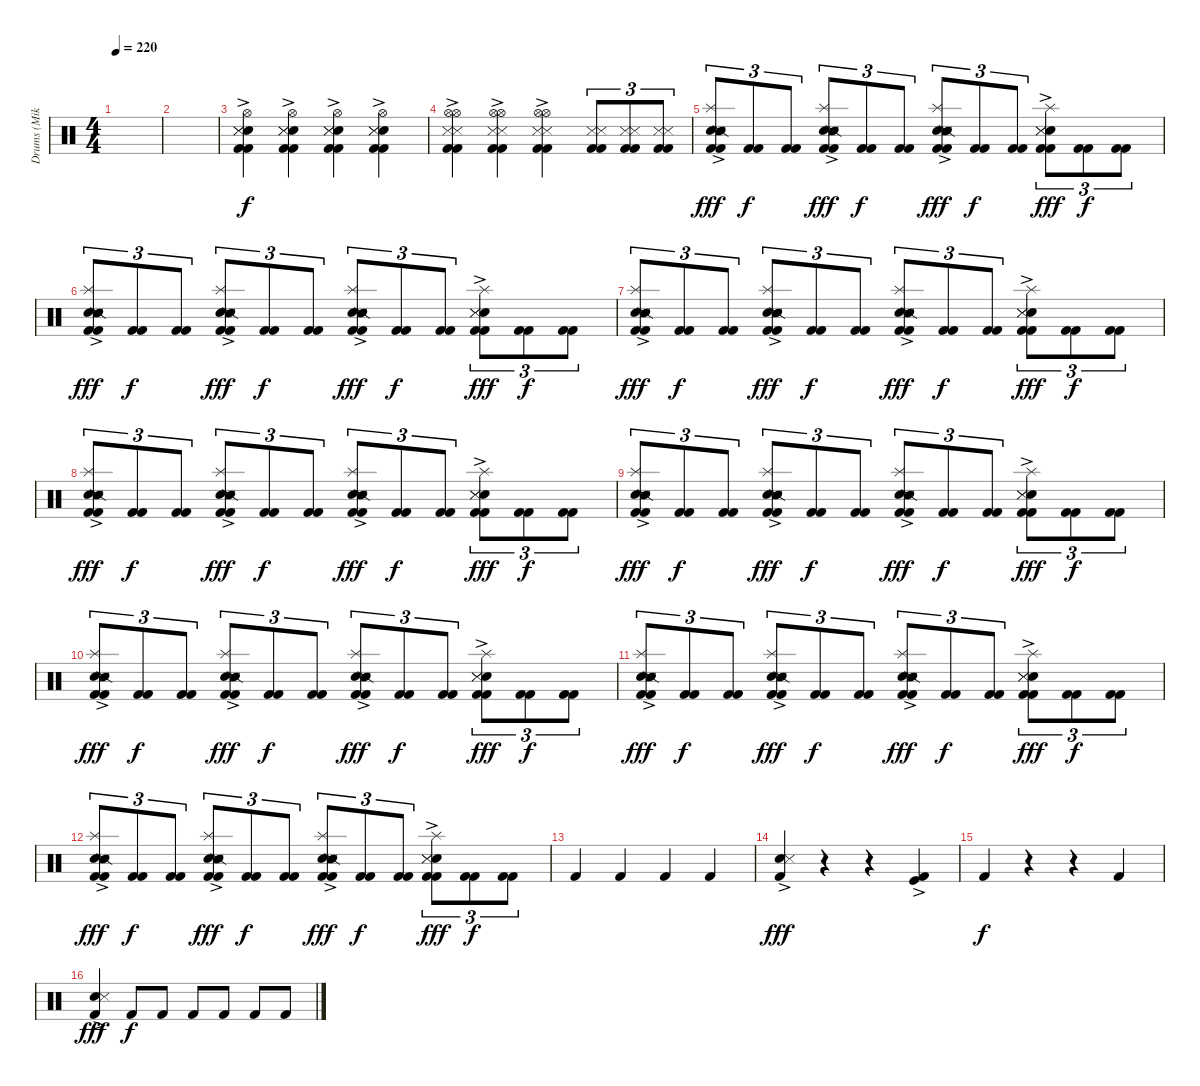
\track ("Drums (Mike Justian)" "Drums (Mik") {instrument percussion}
\staff {score}
\articulation defaults
\ts (4 4)
\tempo 220
\clef neutral
\ks c
|
|
("Hi-Hat (open)"{ac} "Electric Snare (hit)" "Snare (side stick) 3" "Kick (hit) 2" "Kick (hit) 2" "Snare (side stick) 3").4 ("Hi-Hat (open)"{ac} "Electric Snare (hit)" "Snare (side stick) 3" "Kick (hit) 2" "Kick (hit) 2" "Snare (side stick) 3").4 ("Hi-Hat (open)"{ac} "Electric Snare (hit)" "Snare (side stick) 3" "Kick (hit) 2" "Kick (hit) 2" "Snare (side stick) 3").4 ("Hi-Hat (open)"{ac} "Electric Snare (hit)" "Snare (side stick) 3" "Kick (hit) 2" "Kick (hit) 2" "Snare (side stick) 3").4 |
("Hi-Hat (open)"{ac} "Hi-Hat (open)" "Snare (side stick) 3" "Kick (hit) 2" "Kick (hit) 2" "Snare (side stick) 3").4 ("Hi-Hat (open)"{ac} "Hi-Hat (open)" "Snare (side stick) 3" "Kick (hit) 2" "Kick (hit) 2" "Snare (side stick) 3").4 ("Hi-Hat (open)"{ac} "Hi-Hat (open)" "Snare (side stick) 3" "Kick (hit) 2" "Kick (hit) 2" "Snare (side stick) 3").4 ("Snare (side stick) 3" "Kick (hit) 2" "Kick (hit) 2" "Snare (side stick) 3").8{tu (3 2) dy f} ("Snare (side stick) 3" "Kick (hit) 2" "Kick (hit) 2" "Snare (side stick) 3").8{tu (3 2)} ("Snare (side stick) 3" "Kick (hit) 2" "Kick (hit) 2" "Snare (side stick) 3").8{tu (3 2)} |
("Splash (hit)"{ac} "Electric Snare (hit)" "Snare (side stick) 2" "Snare (side stick) 3" "Kick (hit) 2" "Kick (hit) 2").8{tu (3 2) dy fff} ("Kick (hit) 2" "Kick (hit) 2").8{tu (3 2) dy f} ("Kick (hit) 2" "Kick (hit) 2").8{tu (3 2)} ("Splash (hit)"{ac} "Electric Snare (hit)" "Snare (side stick) 2" "Snare (side stick) 3" "Kick (hit) 2" "Kick (hit) 2").8{tu (3 2) dy fff} ("Kick (hit) 2" "Kick (hit) 2").8{tu (3 2) dy f} ("Kick (hit) 2" "Kick (hit) 2").8{tu (3 2)} ("Splash (hit)"{ac} "Electric Snare (hit)" "Snare (side stick) 2" "Snare (side stick) 3" "Kick (hit) 2" "Kick (hit) 2").8{tu (3 2) dy fff} ("Kick (hit) 2" "Kick (hit) 2").8{tu (3 2) dy f} ("Kick (hit) 2" "Kick (hit) 2").8{tu (3 2)} ("Splash (hit)"{ac} "Electric Snare (hit)" "Snare (side stick) 3" "Snare (side stick) 3" "Kick (hit) 2" "Kick (hit) 2").8{tu (3 2) dy fff} ("Kick (hit) 2" "Kick (hit) 2").8{tu (3 2) dy f} ("Kick (hit) 2" "Kick (hit) 2").8{tu (3 2)} |
("Splash (hit)"{ac} "Electric Snare (hit)" "Snare (side stick) 2" "Snare (side stick) 3" "Kick (hit) 2" "Kick (hit) 2").8{tu (3 2) dy fff} ("Kick (hit) 2" "Kick (hit) 2").8{tu (3 2) dy f} ("Kick (hit) 2" "Kick (hit) 2").8{tu (3 2)} ("Splash (hit)"{ac} "Electric Snare (hit)" "Snare (side stick) 2" "Snare (side stick) 3" "Kick (hit) 2" "Kick (hit) 2").8{tu (3 2) dy fff} ("Kick (hit) 2" "Kick (hit) 2").8{tu (3 2) dy f} ("Kick (hit) 2" "Kick (hit) 2").8{tu (3 2)} ("Splash (hit)"{ac} "Electric Snare (hit)" "Snare (side stick) 2" "Snare (side stick) 3" "Kick (hit) 2" "Kick (hit) 2").8{tu (3 2) dy fff} ("Kick (hit) 2" "Kick (hit) 2").8{tu (3 2) dy f} ("Kick (hit) 2" "Kick (hit) 2").8{tu (3 2)} ("Splash (hit)"{ac} "Electric Snare (hit)" "Snare (side stick) 3" "Snare (side stick) 3" "Kick (hit) 2" "Kick (hit) 2").8{tu (3 2) dy fff} ("Kick (hit) 2" "Kick (hit) 2").8{tu (3 2) dy f} ("Kick (hit) 2" "Kick (hit) 2").8{tu (3 2)} |
("Splash (hit)"{ac} "Electric Snare (hit)" "Snare (side stick) 2" "Snare (side stick) 3" "Kick (hit) 2" "Kick (hit) 2").8{tu (3 2) dy fff} ("Kick (hit) 2" "Kick (hit) 2").8{tu (3 2) dy f} ("Kick (hit) 2" "Kick (hit) 2").8{tu (3 2)} ("Splash (hit)"{ac} "Electric Snare (hit)" "Snare (side stick) 2" "Snare (side stick) 3" "Kick (hit) 2" "Kick (hit) 2").8{tu (3 2) dy fff} ("Kick (hit) 2" "Kick (hit) 2").8{tu (3 2) dy f} ("Kick (hit) 2" "Kick (hit) 2").8{tu (3 2)} ("Splash (hit)"{ac} "Electric Snare (hit)" "Snare (side stick) 2" "Snare (side stick) 3" "Kick (hit) 2" "Kick (hit) 2").8{tu (3 2) dy fff} ("Kick (hit) 2" "Kick (hit) 2").8{tu (3 2) dy f} ("Kick (hit) 2" "Kick (hit) 2").8{tu (3 2)} ("Splash (hit)"{ac} "Electric Snare (hit)" "Snare (side stick) 3" "Snare (side stick) 3" "Kick (hit) 2" "Kick (hit) 2").8{tu (3 2) dy fff} ("Kick (hit) 2" "Kick (hit) 2").8{tu (3 2) dy f} ("Kick (hit) 2" "Kick (hit) 2").8{tu (3 2)} |
("Splash (hit)"{ac} "Electric Snare (hit)" "Snare (side stick) 2" "Snare (side stick) 3" "Kick (hit) 2" "Kick (hit) 2").8{tu (3 2) dy fff} ("Kick (hit) 2" "Kick (hit) 2").8{tu (3 2) dy f} ("Kick (hit) 2" "Kick (hit) 2").8{tu (3 2)} ("Splash (hit)"{ac} "Electric Snare (hit)" "Snare (side stick) 2" "Snare (side stick) 3" "Kick (hit) 2" "Kick (hit) 2").8{tu (3 2) dy fff} ("Kick (hit) 2" "Kick (hit) 2").8{tu (3 2) dy f} ("Kick (hit) 2" "Kick (hit) 2").8{tu (3 2)} ("Splash (hit)"{ac} "Electric Snare (hit)" "Snare (side stick) 2" "Snare (side stick) 3" "Kick (hit) 2" "Kick (hit) 2").8{tu (3 2) dy fff} ("Kick (hit) 2" "Kick (hit) 2").8{tu (3 2) dy f} ("Kick (hit) 2" "Kick (hit) 2").8{tu (3 2)} ("Splash (hit)"{ac} "Electric Snare (hit)" "Snare (side stick) 3" "Snare (side stick) 3" "Kick (hit) 2" "Kick (hit) 2").8{tu (3 2) dy fff} ("Kick (hit) 2" "Kick (hit) 2").8{tu (3 2) dy f} ("Kick (hit) 2" "Kick (hit) 2").8{tu (3 2)} |
("Splash (hit)"{ac} "Electric Snare (hit)" "Snare (side stick) 2" "Snare (side stick) 3" "Kick (hit) 2" "Kick (hit) 2").8{tu (3 2) dy fff} ("Kick (hit) 2" "Kick (hit) 2").8{tu (3 2) dy f} ("Kick (hit) 2" "Kick (hit) 2").8{tu (3 2)} ("Splash (hit)"{ac} "Electric Snare (hit)" "Snare (side stick) 2" "Snare (side stick) 3" "Kick (hit) 2" "Kick (hit) 2").8{tu (3 2) dy fff} ("Kick (hit) 2" "Kick (hit) 2").8{tu (3 2) dy f} ("Kick (hit) 2" "Kick (hit) 2").8{tu (3 2)} ("Splash (hit)"{ac} "Electric Snare (hit)" "Snare (side stick) 2" "Snare (side stick) 3" "Kick (hit) 2" "Kick (hit) 2").8{tu (3 2) dy fff} ("Kick (hit) 2" "Kick (hit) 2").8{tu (3 2) dy f} ("Kick (hit) 2" "Kick (hit) 2").8{tu (3 2)} ("Splash (hit)"{ac} "Electric Snare (hit)" "Snare (side stick) 3" "Snare (side stick) 3" "Kick (hit) 2" "Kick (hit) 2").8{tu (3 2) dy fff} ("Kick (hit) 2" "Kick (hit) 2").8{tu (3 2) dy f} ("Kick (hit) 2" "Kick (hit) 2").8{tu (3 2)} |
("Splash (hit)"{ac} "Electric Snare (hit)" "Snare (side stick) 2" "Snare (side stick) 3" "Kick (hit) 2" "Kick (hit) 2").8{tu (3 2) dy fff} ("Kick (hit) 2" "Kick (hit) 2").8{tu (3 2) dy f} ("Kick (hit) 2" "Kick (hit) 2").8{tu (3 2)} ("Splash (hit)"{ac} "Electric Snare (hit)" "Snare (side stick) 2" "Snare (side stick) 3" "Kick (hit) 2" "Kick (hit) 2").8{tu (3 2) dy fff} ("Kick (hit) 2" "Kick (hit) 2").8{tu (3 2) dy f} ("Kick (hit) 2" "Kick (hit) 2").8{tu (3 2)} ("Splash (hit)"{ac} "Electric Snare (hit)" "Snare (side stick) 2" "Snare (side stick) 3" "Kick (hit) 2" "Kick (hit) 2").8{tu (3 2) dy fff} ("Kick (hit) 2" "Kick (hit) 2").8{tu (3 2) dy f} ("Kick (hit) 2" "Kick (hit) 2").8{tu (3 2)} ("Splash (hit)"{ac} "Electric Snare (hit)" "Snare (side stick) 3" "Snare (side stick) 3" "Kick (hit) 2" "Kick (hit) 2").8{tu (3 2) dy fff} ("Kick (hit) 2" "Kick (hit) 2").8{tu (3 2) dy f} ("Kick (hit) 2" "Kick (hit) 2").8{tu (3 2)} |
("Splash (hit)"{ac} "Electric Snare (hit)" "Snare (side stick) 2" "Snare (side stick) 3" "Kick (hit) 2" "Kick (hit) 2").8{tu (3 2) dy fff} ("Kick (hit) 2" "Kick (hit) 2").8{tu (3 2) dy f} ("Kick (hit) 2" "Kick (hit) 2").8{tu (3 2)} ("Splash (hit)"{ac} "Electric Snare (hit)" "Snare (side stick) 2" "Snare (side stick) 3" "Kick (hit) 2" "Kick (hit) 2").8{tu (3 2) dy fff} ("Kick (hit) 2" "Kick (hit) 2").8{tu (3 2) dy f} ("Kick (hit) 2" "Kick (hit) 2").8{tu (3 2)} ("Splash (hit)"{ac} "Electric Snare (hit)" "Snare (side stick) 2" "Snare (side stick) 3" "Kick (hit) 2" "Kick (hit) 2").8{tu (3 2) dy fff} ("Kick (hit) 2" "Kick (hit) 2").8{tu (3 2) dy f} ("Kick (hit) 2" "Kick (hit) 2").8{tu (3 2)} ("Splash (hit)"{ac} "Electric Snare (hit)" "Snare (side stick) 3" "Snare (side stick) 3" "Kick (hit) 2" "Kick (hit) 2").8{tu (3 2) dy fff} ("Kick (hit) 2" "Kick (hit) 2").8{tu (3 2) dy f} ("Kick (hit) 2" "Kick (hit) 2").8{tu (3 2)} |
("Splash (hit)"{ac} "Electric Snare (hit)" "Snare (side stick) 2" "Snare (side stick) 3" "Kick (hit) 2" "Kick (hit) 2").8{tu (3 2) dy fff} ("Kick (hit) 2" "Kick (hit) 2").8{tu (3 2) dy f} ("Kick (hit) 2" "Kick (hit) 2").8{tu (3 2)} ("Splash (hit)"{ac} "Electric Snare (hit)" "Snare (side stick) 2" "Snare (side stick) 3" "Kick (hit) 2" "Kick (hit) 2").8{tu (3 2) dy fff} ("Kick (hit) 2" "Kick (hit) 2").8{tu (3 2) dy f} ("Kick (hit) 2" "Kick (hit) 2").8{tu (3 2)} ("Splash (hit)"{ac} "Electric Snare (hit)" "Snare (side stick) 2" "Snare (side stick) 3" "Kick (hit) 2" "Kick (hit) 2").8{tu (3 2) dy fff} ("Kick (hit) 2" "Kick (hit) 2").8{tu (3 2) dy f} ("Kick (hit) 2" "Kick (hit) 2").8{tu (3 2)} ("Splash (hit)"{ac} "Electric Snare (hit)" "Snare (side stick) 3" "Snare (side stick) 3" "Kick (hit) 2" "Kick (hit) 2").8{tu (3 2) dy fff} ("Kick (hit) 2" "Kick (hit) 2").8{tu (3 2) dy f} ("Kick (hit) 2" "Kick (hit) 2").8{tu (3 2)} |
"Kick (hit) 2".4 "Kick (hit) 2".4 "Kick (hit) 2".4 "Kick (hit) 2".4 |
("Electric Snare (hit)"{ac} "Kick (hit) 2"{ac} "Snare (side stick) 3"{ac}).4{dy fff} r.4 r.4 ("Kick (hit)"{ac} "Kick (hit) 2").4 |
"Kick (hit) 2".4{dy f} r.4 r.4 "Kick (hit) 2".4 |
("Electric Snare (hit)"{ac} "Kick (hit) 2"{ac} "Snare (side stick) 3"{ac}).4{dy fff} "Kick (hit) 2".8{dy f} "Kick (hit) 2".8 "Kick (hit) 2".8 "Kick (hit) 2".8 "Kick (hit) 2".8 "Kick (hit) 2".8
